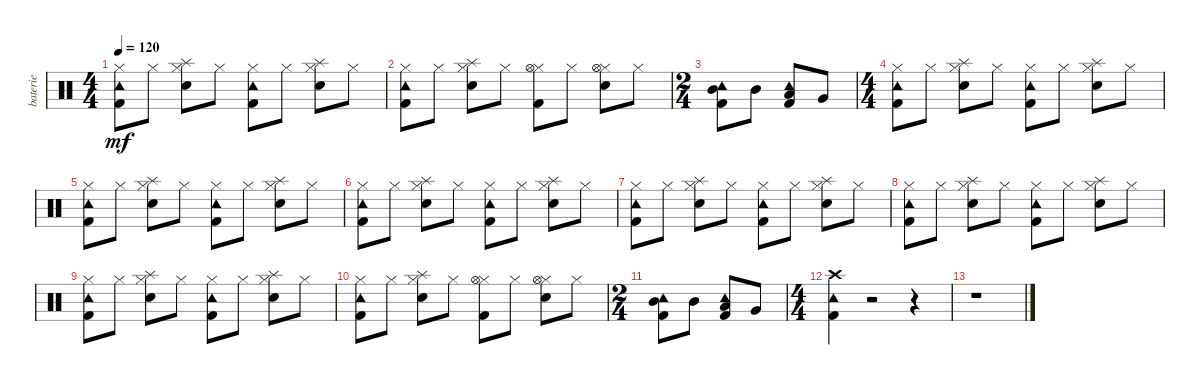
\track ("baterie" "baterie") {instrument percussion}
\staff {score}
\articulation defaults
\ts (4 4)
\tempo 120
\clef neutral
\ks c
("Hi-Hat (closed)" "Tambourine (hit)" "Kick (hit) 2").8{dy mf} "Hi-Hat (closed)".8 ("Snare (hit) 2" "Splash (hit)" "Hi-Hat (closed)").8 "Hi-Hat (closed)".8 ("Kick (hit) 2" "Tambourine (hit)" "Hi-Hat (closed)").8 "Hi-Hat (closed)".8 ("Snare (hit) 2" "Splash (hit)" "Hi-Hat (closed)").8 "Hi-Hat (closed)".8 |
("Hi-Hat (closed)" "Tambourine (hit)" "Kick (hit) 2").8 "Hi-Hat (closed)".8 ("Snare (hit) 2" "Splash (hit)" "Hi-Hat (closed)").8 "Hi-Hat (closed)".8 ("Kick (hit) 2" "Hi-Hat (closed)" "Hi-Hat (open)").8 "Hi-Hat (closed)".8 ("Snare (hit) 2" "Hi-Hat (closed)" "Hi-Hat (open)").8 "Hi-Hat (closed)".8 |
\ts (2 4)
("Tambourine (hit)" "Kick (hit) 2" "Mid Tom (hit)").8 "Mid Tom (hit)".8 ("Low Tom (hit)" "Tambourine (hit)" "Kick (hit) 2").8 "Very Low Tom (hit)".8 |
\ts (4 4)
("Hi-Hat (closed)" "Tambourine (hit)" "Kick (hit) 2").8 "Hi-Hat (closed)".8 ("Snare (hit) 2" "Splash (hit)" "Hi-Hat (closed)").8 "Hi-Hat (closed)".8 ("Kick (hit) 2" "Tambourine (hit)" "Hi-Hat (closed)").8 "Hi-Hat (closed)".8 ("Snare (hit) 2" "Splash (hit)" "Hi-Hat (closed)").8 "Hi-Hat (closed)".8 |
("Hi-Hat (closed)" "Tambourine (hit)" "Kick (hit) 2").8 "Hi-Hat (closed)".8 ("Snare (hit) 2" "Splash (hit)" "Hi-Hat (closed)").8 "Hi-Hat (closed)".8 ("Kick (hit) 2" "Tambourine (hit)" "Hi-Hat (closed)").8 "Hi-Hat (closed)".8 ("Snare (hit) 2" "Splash (hit)" "Hi-Hat (closed)").8 "Hi-Hat (closed)".8 |
("Hi-Hat (closed)" "Tambourine (hit)" "Kick (hit) 2").8 "Hi-Hat (closed)".8 ("Snare (hit) 2" "Splash (hit)" "Hi-Hat (closed)").8 "Hi-Hat (closed)".8 ("Kick (hit) 2" "Tambourine (hit)" "Hi-Hat (closed)").8 "Hi-Hat (closed)".8 ("Snare (hit) 2" "Splash (hit)" "Hi-Hat (closed)").8 "Hi-Hat (closed)".8 |
("Hi-Hat (closed)" "Tambourine (hit)" "Kick (hit) 2").8 "Hi-Hat (closed)".8 ("Snare (hit) 2" "Splash (hit)" "Hi-Hat (closed)").8 "Hi-Hat (closed)".8 ("Kick (hit) 2" "Tambourine (hit)" "Hi-Hat (closed)").8 "Hi-Hat (closed)".8 ("Snare (hit) 2" "Splash (hit)" "Hi-Hat (closed)").8 "Hi-Hat (closed)".8 |
("Hi-Hat (closed)" "Tambourine (hit)" "Kick (hit) 2").8 "Hi-Hat (closed)".8 ("Snare (hit) 2" "Splash (hit)" "Hi-Hat (closed)").8 "Hi-Hat (closed)".8 ("Kick (hit) 2" "Tambourine (hit)" "Hi-Hat (closed)").8 "Hi-Hat (closed)".8 ("Snare (hit) 2" "Splash (hit)" "Hi-Hat (closed)").8 "Hi-Hat (closed)".8 |
("Hi-Hat (closed)" "Tambourine (hit)" "Kick (hit) 2").8 "Hi-Hat (closed)".8 ("Snare (hit) 2" "Splash (hit)" "Hi-Hat (closed)").8 "Hi-Hat (closed)".8 ("Kick (hit) 2" "Tambourine (hit)" "Hi-Hat (closed)").8 "Hi-Hat (closed)".8 ("Snare (hit) 2" "Splash (hit)" "Hi-Hat (closed)").8 "Hi-Hat (closed)".8 |
("Hi-Hat (closed)" "Tambourine (hit)" "Kick (hit) 2").8 "Hi-Hat (closed)".8 ("Snare (hit) 2" "Splash (hit)" "Hi-Hat (closed)").8 "Hi-Hat (closed)".8 ("Kick (hit) 2" "Hi-Hat (closed)" "Hi-Hat (open)").8 "Hi-Hat (closed)".8 ("Snare (hit) 2" "Hi-Hat (closed)" "Hi-Hat (open)").8 "Hi-Hat (closed)".8 |
\ts (2 4)
("Tambourine (hit)" "Kick (hit) 2" "Mid Tom (hit)").8 "Mid Tom (hit)".8 ("Low Tom (hit)" "Tambourine (hit)" "Kick (hit) 2").8 "Very Low Tom (hit)".8 |
\ts (4 4)
("Kick (hit) 2" "Tambourine (hit)" "Crash high (hit)").4 r.2 r.4 |
r.1
